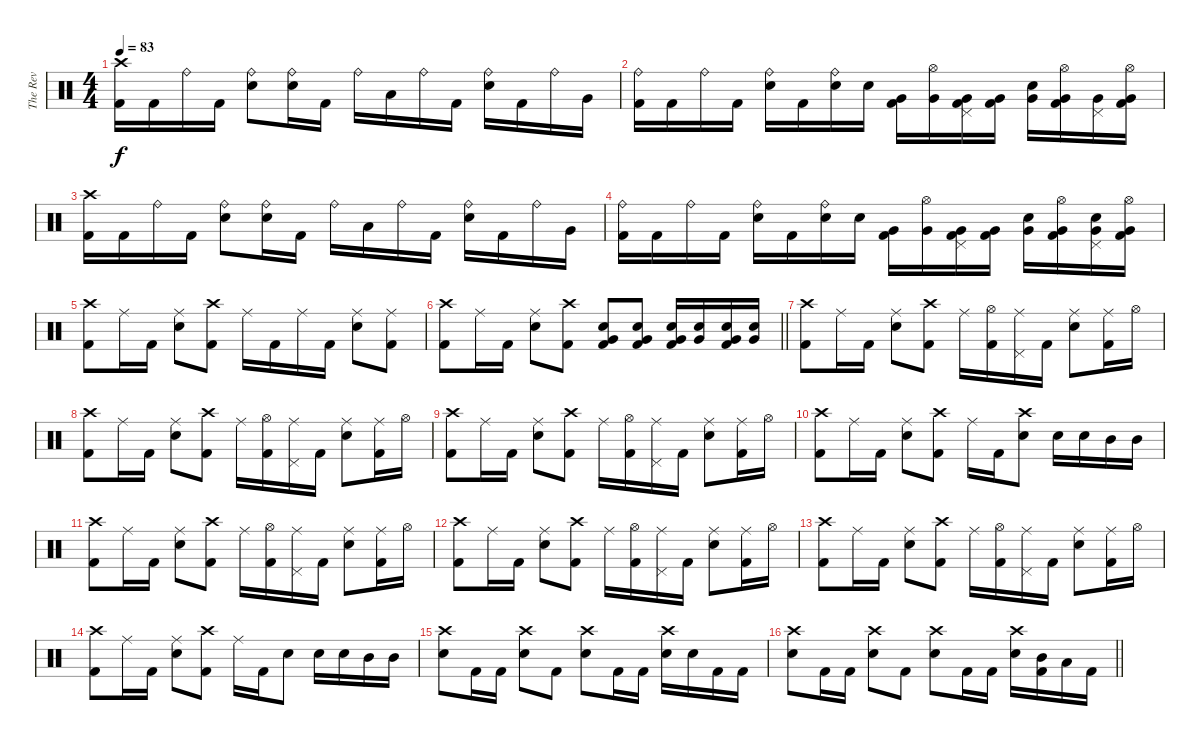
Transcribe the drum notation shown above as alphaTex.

\track ("The Rev" "The Rev") {instrument percussion}
\staff {score}
\articulation defaults
\ts (4 4)
\tempo 83
\clef neutral
\ks c
("Crash high (hit)" "Kick (hit) 2").16{dy f} "Kick (hit) 2".16 "Ride (bell)".16 "Kick (hit) 2".16 ("Ride (bell)" "Snare (hit) 2").8 ("Ride (bell)" "Snare (hit) 2").16 "Kick (hit) 2".16 "Ride (bell)".16 "Low Tom (hit)".16 "Ride (bell)".16 "Kick (hit) 2".16 ("Ride (bell)" "Snare (hit) 2").16 "Kick (hit) 2".16 "Ride (bell)".16 "Very Low Tom (hit)".16 |
("Ride (bell)" "Kick (hit) 2").16 "Kick (hit) 2".16 "Ride (bell)".16 "Kick (hit) 2".16 ("Ride (bell)" "Snare (hit) 2").16 "Kick (hit) 2".16 ("Ride (bell)" "Snare (hit) 2").16 "Snare (hit) 2".16 ("Very Low Tom (hit)" "Kick (hit) 2").16 ("Hi-Hat (open)" "Very Low Tom (hit)").16 ("Very Low Tom (hit)" "Pedal Hi-Hat (hit)" "Kick (hit) 2").16 ("Very Low Tom (hit)" "Kick (hit) 2").16 ("Snare (hit) 2" "Very Low Tom (hit)").16 ("Hi-Hat (open)" "Very Low Tom (hit)" "Kick (hit) 2").16 ("Very Low Tom (hit)" "Pedal Hi-Hat (hit)").16 ("Hi-Hat (open)" "Very Low Tom (hit)" "Kick (hit) 2").16 |
("Crash high (hit)" "Kick (hit) 2").16 "Kick (hit) 2".16 "Ride (bell)".16 "Kick (hit) 2".16 ("Ride (bell)" "Snare (hit) 2").8 ("Ride (bell)" "Snare (hit) 2").16 "Kick (hit) 2".16 "Ride (bell)".16 "Low Tom (hit)".16 "Ride (bell)".16 "Kick (hit) 2".16 ("Ride (bell)" "Snare (hit) 2").16 "Kick (hit) 2".16 "Ride (bell)".16 "Very Low Tom (hit)".16 |
("Ride (bell)" "Kick (hit) 2").16 "Kick (hit) 2".16 "Ride (bell)".16 "Kick (hit) 2".16 ("Ride (bell)" "Snare (hit) 2").16 "Kick (hit) 2".16 ("Ride (bell)" "Snare (hit) 2").16 "Snare (hit) 2".16 ("Very Low Tom (hit)" "Kick (hit) 2").16 ("Hi-Hat (open)" "Very Low Tom (hit)").16 ("Very Low Tom (hit)" "Pedal Hi-Hat (hit)" "Kick (hit) 2").16 ("Very Low Tom (hit)" "Kick (hit) 2").16 ("Snare (hit) 2" "Very Low Tom (hit)").16 ("Hi-Hat (open)" "Very Low Tom (hit)" "Kick (hit) 2").16 ("Snare (hit) 2" "Very Low Tom (hit)" "Pedal Hi-Hat (hit)").16 ("Hi-Hat (open)" "Very Low Tom (hit)" "Kick (hit) 2").16 |
("Crash high (hit)" "Kick (hit) 2").8 "Ride (middle)".16 "Kick (hit) 2".16 ("Ride (middle)" "Snare (hit) 2").8 ("Crash high (hit)" "Kick (hit) 2").8 "Ride (middle)".16 "Kick (hit) 2".16 "Ride (middle)".16 "Kick (hit) 2".16 ("Ride (middle)" "Snare (hit) 2").8 ("Ride (middle)" "Kick (hit) 2").8 |
\barLineRight lightlight
("Crash high (hit)" "Kick (hit) 2").8 "Ride (middle)".16 "Kick (hit) 2".16 ("Ride (middle)" "Snare (hit) 2").8 ("Crash high (hit)" "Kick (hit) 2").8 ("Snare (hit) 2" "Very Low Tom (hit)" "Kick (hit) 2").8 ("Snare (hit) 2" "Very Low Tom (hit)" "Kick (hit) 2").8 ("Snare (hit) 2" "Very Low Tom (hit)" "Kick (hit) 2").16 ("Snare (hit) 2" "Very Low Tom (hit)").16 ("Snare (hit) 2" "Very Low Tom (hit)" "Kick (hit) 2").16 ("Snare (hit) 2" "Very Low Tom (hit)").16 |
("Crash high (hit)" "Kick (hit) 2").8 "Ride (middle)".16 "Kick (hit) 2".16 ("Ride (middle)" "Snare (hit) 2").8 ("Crash high (hit)" "Kick (hit) 2").8 "Ride (middle)".16 ("Hi-Hat (open)" "Kick (hit) 2").16 ("Ride (middle)" "Pedal Hi-Hat (hit)").16 "Kick (hit) 2".16 ("Ride (middle)" "Snare (hit) 2").8 ("Ride (middle)" "Kick (hit) 2").16 "Hi-Hat (open)".16 |
("Crash high (hit)" "Kick (hit) 2").8 "Ride (middle)".16 "Kick (hit) 2".16 ("Ride (middle)" "Snare (hit) 2").8 ("Crash high (hit)" "Kick (hit) 2").8 "Ride (middle)".16 ("Hi-Hat (open)" "Kick (hit) 2").16 ("Ride (middle)" "Pedal Hi-Hat (hit)").16 "Kick (hit) 2".16 ("Ride (middle)" "Snare (hit) 2").8 ("Ride (middle)" "Kick (hit) 2").16 "Hi-Hat (open)".16 |
("Crash high (hit)" "Kick (hit) 2").8 "Ride (middle)".16 "Kick (hit) 2".16 ("Ride (middle)" "Snare (hit) 2").8 ("Crash high (hit)" "Kick (hit) 2").8 "Ride (middle)".16 ("Hi-Hat (open)" "Kick (hit) 2").16 ("Ride (middle)" "Pedal Hi-Hat (hit)").16 "Kick (hit) 2".16 ("Ride (middle)" "Snare (hit) 2").8 ("Ride (middle)" "Kick (hit) 2").16 "Hi-Hat (open)".16 |
("Crash high (hit)" "Kick (hit) 2").8 "Ride (middle)".16 "Kick (hit) 2".16 ("Ride (middle)" "Snare (hit) 2").8 ("Crash high (hit)" "Kick (hit) 2").8 "Ride (middle)".16 "Kick (hit) 2".16 ("Crash high (hit)" "Snare (hit) 2").8 "Snare (hit) 2".16 "Snare (hit) 2".16 "Mid Tom (hit)".16 "Mid Tom (hit)".16 |
("Crash high (hit)" "Kick (hit) 2").8 "Ride (middle)".16 "Kick (hit) 2".16 ("Ride (middle)" "Snare (hit) 2").8 ("Crash high (hit)" "Kick (hit) 2").8 "Ride (middle)".16 ("Hi-Hat (open)" "Kick (hit) 2").16 ("Ride (middle)" "Pedal Hi-Hat (hit)").16 "Kick (hit) 2".16 ("Ride (middle)" "Snare (hit) 2").8 ("Ride (middle)" "Kick (hit) 2").16 "Hi-Hat (open)".16 |
("Crash high (hit)" "Kick (hit) 2").8 "Ride (middle)".16 "Kick (hit) 2".16 ("Ride (middle)" "Snare (hit) 2").8 ("Crash high (hit)" "Kick (hit) 2").8 "Ride (middle)".16 ("Hi-Hat (open)" "Kick (hit) 2").16 ("Ride (middle)" "Pedal Hi-Hat (hit)").16 "Kick (hit) 2".16 ("Ride (middle)" "Snare (hit) 2").8 ("Ride (middle)" "Kick (hit) 2").16 "Hi-Hat (open)".16 |
("Crash high (hit)" "Kick (hit) 2").8 "Ride (middle)".16 "Kick (hit) 2".16 ("Ride (middle)" "Snare (hit) 2").8 ("Crash high (hit)" "Kick (hit) 2").8 "Ride (middle)".16 ("Hi-Hat (open)" "Kick (hit) 2").16 ("Ride (middle)" "Pedal Hi-Hat (hit)").16 "Kick (hit) 2".16 ("Ride (middle)" "Snare (hit) 2").8 ("Ride (middle)" "Kick (hit) 2").16 "Hi-Hat (open)".16 |
("Crash high (hit)" "Kick (hit) 2").8 "Ride (middle)".16 "Kick (hit) 2".16 ("Ride (middle)" "Snare (hit) 2").8 ("Crash high (hit)" "Kick (hit) 2").8 "Ride (middle)".16 "Kick (hit) 2".16 "Snare (hit) 2".8 "Snare (hit) 2".16 "Snare (hit) 2".16 "Mid Tom (hit)".16 "Mid Tom (hit)".16 |
("Crash high (hit)" "Snare (hit) 2").8 "Kick (hit) 2".16 "Kick (hit) 2".16 ("Crash high (hit)" "Snare (hit) 2").8 "Kick (hit) 2".8 ("Crash high (hit)" "Snare (hit) 2").8 "Kick (hit) 2".16 "Kick (hit) 2".16 ("Crash high (hit)" "Snare (hit) 2").16 "Snare (hit) 2".16 "Kick (hit) 2".16 "Kick (hit) 2".16 |
\barLineRight lightlight
("Crash high (hit)" "Snare (hit) 2").8 "Kick (hit) 2".16 "Kick (hit) 2".16 ("Crash high (hit)" "Snare (hit) 2").8 "Kick (hit) 2".8 ("Crash high (hit)" "Snare (hit) 2").8 "Kick (hit) 2".16 "Kick (hit) 2".16 ("Crash high (hit)" "Snare (hit) 2").16 ("Mid Tom (hit)" "Kick (hit) 2").16 "Low Tom (hit)".16 "Kick (hit) 2".16
